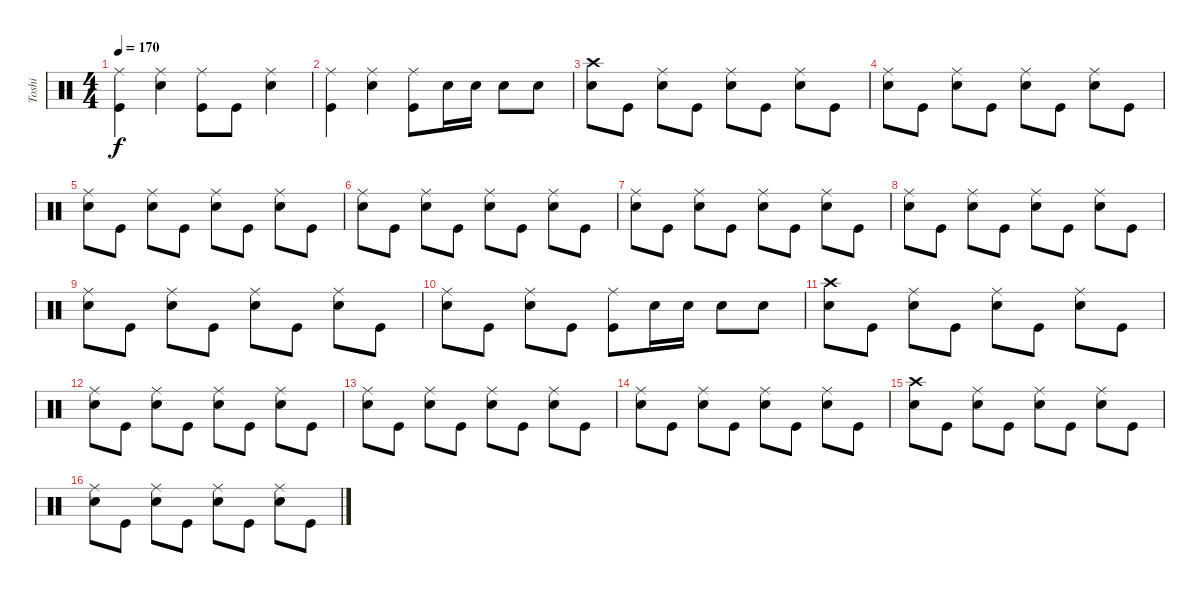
\track ("Toshi" "Toshi") {instrument percussion}
\staff {score}
\articulation defaults
\ts (4 4)
\tempo 170
\clef neutral
\ks c
("Ride (middle)" "Kick (hit)").4{dy f} ("Ride (middle)" "Snare (hit) 2").4 ("Ride (middle)" "Kick (hit)").8 "Kick (hit)".8 ("Ride (middle)" "Snare (hit) 2").4 |
("Ride (middle)" "Kick (hit)").4 ("Ride (middle)" "Snare (hit) 2").4 ("Ride (middle)" "Kick (hit)").8 "Snare (hit) 2".16 "Snare (hit) 2".16 "Snare (hit) 2".8 "Snare (hit) 2".8 |
("Crash high (hit)" "Snare (hit) 2").8 "Kick (hit)".8 ("Ride (middle)" "Snare (hit) 2").8 "Kick (hit)".8 ("Ride (middle)" "Snare (hit) 2").8 "Kick (hit)".8 ("Ride (middle)" "Snare (hit) 2").8 "Kick (hit)".8 |
("Ride (middle)" "Snare (hit) 2").8 "Kick (hit)".8 ("Ride (middle)" "Snare (hit) 2").8 "Kick (hit)".8 ("Ride (middle)" "Snare (hit) 2").8 "Kick (hit)".8 ("Ride (middle)" "Snare (hit) 2").8 "Kick (hit)".8 |
("Ride (middle)" "Snare (hit) 2").8 "Kick (hit)".8 ("Ride (middle)" "Snare (hit) 2").8 "Kick (hit)".8 ("Ride (middle)" "Snare (hit) 2").8 "Kick (hit)".8 ("Ride (middle)" "Snare (hit) 2").8 "Kick (hit)".8 |
("Ride (middle)" "Snare (hit) 2").8 "Kick (hit)".8 ("Ride (middle)" "Snare (hit) 2").8 "Kick (hit)".8 ("Ride (middle)" "Snare (hit) 2").8 "Kick (hit)".8 ("Ride (middle)" "Snare (hit) 2").8 "Kick (hit)".8 |
("Ride (middle)" "Snare (hit) 2").8 "Kick (hit)".8 ("Ride (middle)" "Snare (hit) 2").8 "Kick (hit)".8 ("Ride (middle)" "Snare (hit) 2").8 "Kick (hit)".8 ("Ride (middle)" "Snare (hit) 2").8 "Kick (hit)".8 |
("Ride (middle)" "Snare (hit) 2").8 "Kick (hit)".8 ("Ride (middle)" "Snare (hit) 2").8 "Kick (hit)".8 ("Ride (middle)" "Snare (hit) 2").8 "Kick (hit)".8 ("Ride (middle)" "Snare (hit) 2").8 "Kick (hit)".8 |
("Ride (middle)" "Snare (hit) 2").8 "Kick (hit)".8 ("Ride (middle)" "Snare (hit) 2").8 "Kick (hit)".8 ("Ride (middle)" "Snare (hit) 2").8 "Kick (hit)".8 ("Ride (middle)" "Snare (hit) 2").8 "Kick (hit)".8 |
("Ride (middle)" "Snare (hit) 2").8 "Kick (hit)".8 ("Ride (middle)" "Snare (hit) 2").8 "Kick (hit)".8 ("Ride (middle)" "Kick (hit)").8 "Snare (hit) 2".16 "Snare (hit) 2".16 "Snare (hit) 2".8 "Snare (hit) 2".8 |
("Crash high (hit)" "Snare (hit) 2").8 "Kick (hit)".8 ("Ride (middle)" "Snare (hit) 2").8 "Kick (hit)".8 ("Ride (middle)" "Snare (hit) 2").8 "Kick (hit)".8 ("Ride (middle)" "Snare (hit) 2").8 "Kick (hit)".8 |
("Ride (middle)" "Snare (hit) 2").8 "Kick (hit)".8 ("Ride (middle)" "Snare (hit) 2").8 "Kick (hit)".8 ("Ride (middle)" "Snare (hit) 2").8 "Kick (hit)".8 ("Ride (middle)" "Snare (hit) 2").8 "Kick (hit)".8 |
("Ride (middle)" "Snare (hit) 2").8 "Kick (hit)".8 ("Ride (middle)" "Snare (hit) 2").8 "Kick (hit)".8 ("Ride (middle)" "Snare (hit) 2").8 "Kick (hit)".8 ("Ride (middle)" "Snare (hit) 2").8 "Kick (hit)".8 |
("Ride (middle)" "Snare (hit) 2").8 "Kick (hit)".8 ("Ride (middle)" "Snare (hit) 2").8 "Kick (hit)".8 ("Ride (middle)" "Snare (hit) 2").8 "Kick (hit)".8 ("Ride (middle)" "Snare (hit) 2").8 "Kick (hit)".8 |
("Crash high (hit)" "Snare (hit) 2").8 "Kick (hit)".8 ("Ride (middle)" "Snare (hit) 2").8 "Kick (hit)".8 ("Ride (middle)" "Snare (hit) 2").8 "Kick (hit)".8 ("Ride (middle)" "Snare (hit) 2").8 "Kick (hit)".8 |
("Ride (middle)" "Snare (hit) 2").8 "Kick (hit)".8 ("Ride (middle)" "Snare (hit) 2").8 "Kick (hit)".8 ("Ride (middle)" "Snare (hit) 2").8 "Kick (hit)".8 ("Ride (middle)" "Snare (hit) 2").8 "Kick (hit)".8
